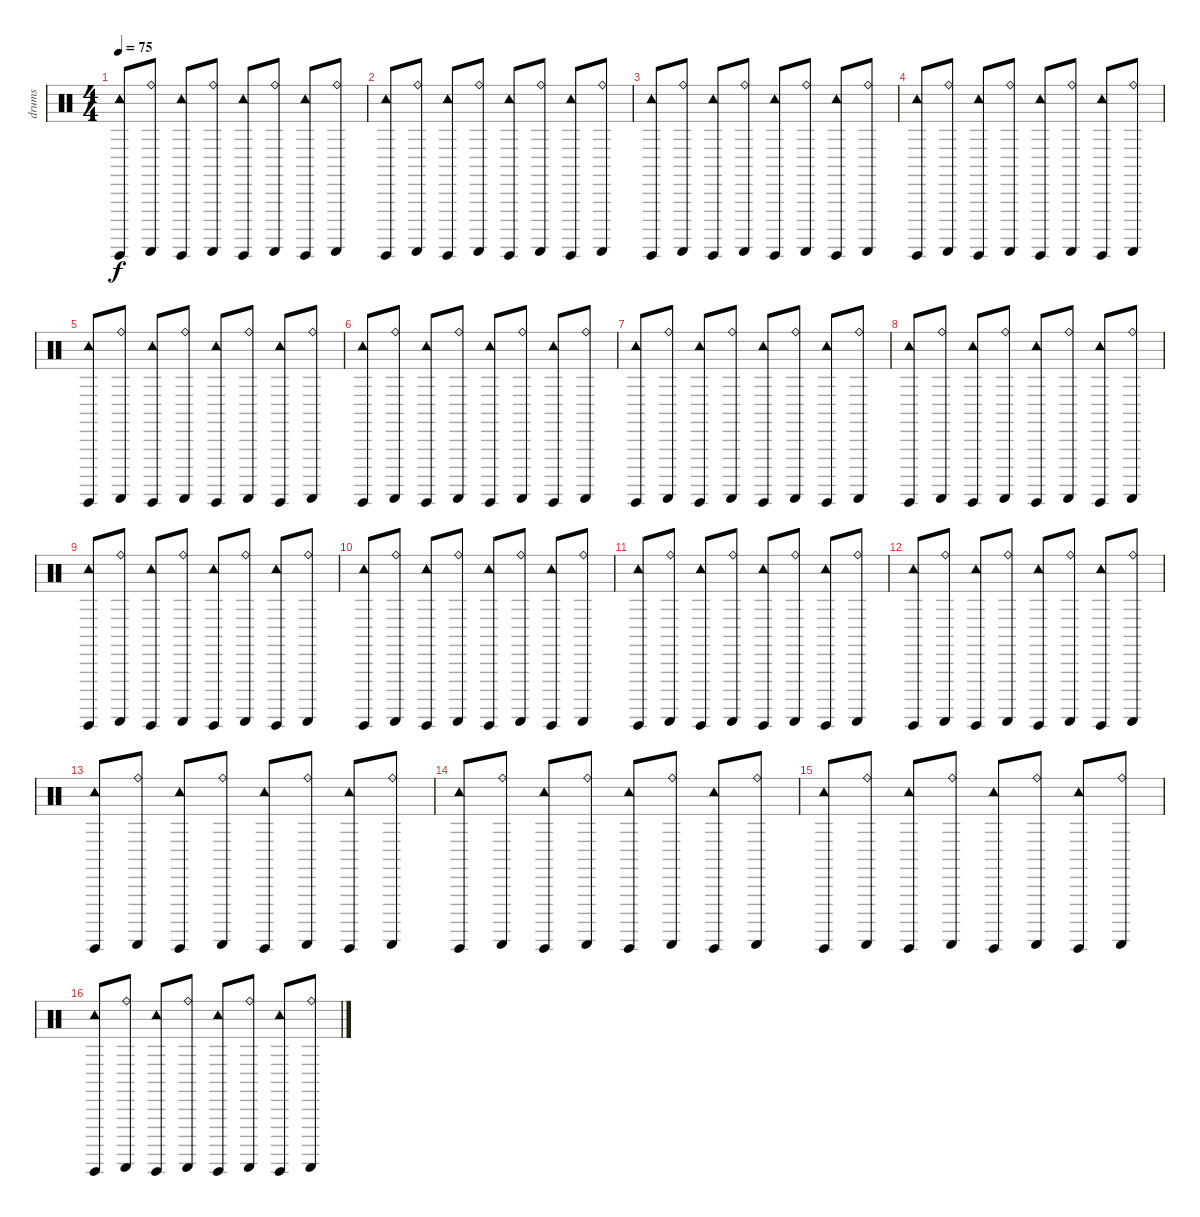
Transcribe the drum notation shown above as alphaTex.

\track ("drums" "drums") {instrument percussion}
\staff {score}
\articulation defaults
\ts (4 4)
\tempo 75
\clef neutral
\ks c
("Tambourine (hit)" "Guiro (hit)").8{dy f volume 13} ("Ride (bell)" "Guiro (scrap-return)").8 ("Tambourine (hit)" "Guiro (hit)").8 ("Ride (bell)" "Guiro (scrap-return)").8 ("Tambourine (hit)" "Guiro (hit)").8 ("Ride (bell)" "Guiro (scrap-return)").8 ("Tambourine (hit)" "Guiro (hit)").8 ("Ride (bell)" "Guiro (scrap-return)").8 |
("Tambourine (hit)" "Guiro (hit)").8{volume 13} ("Ride (bell)" "Guiro (scrap-return)").8 ("Tambourine (hit)" "Guiro (hit)").8 ("Ride (bell)" "Guiro (scrap-return)").8 ("Tambourine (hit)" "Guiro (hit)").8 ("Ride (bell)" "Guiro (scrap-return)").8 ("Tambourine (hit)" "Guiro (hit)").8 ("Ride (bell)" "Guiro (scrap-return)").8 |
("Tambourine (hit)" "Guiro (hit)").8{volume 13} ("Ride (bell)" "Guiro (scrap-return)").8 ("Tambourine (hit)" "Guiro (hit)").8 ("Ride (bell)" "Guiro (scrap-return)").8 ("Tambourine (hit)" "Guiro (hit)").8 ("Ride (bell)" "Guiro (scrap-return)").8 ("Tambourine (hit)" "Guiro (hit)").8 ("Ride (bell)" "Guiro (scrap-return)").8 |
("Tambourine (hit)" "Guiro (hit)").8{volume 13} ("Ride (bell)" "Guiro (scrap-return)").8 ("Tambourine (hit)" "Guiro (hit)").8 ("Ride (bell)" "Guiro (scrap-return)").8 ("Tambourine (hit)" "Guiro (hit)").8 ("Ride (bell)" "Guiro (scrap-return)").8 ("Tambourine (hit)" "Guiro (hit)").8 ("Ride (bell)" "Guiro (scrap-return)").8 |
("Tambourine (hit)" "Guiro (hit)").8{volume 13} ("Ride (bell)" "Guiro (scrap-return)").8 ("Tambourine (hit)" "Guiro (hit)").8 ("Ride (bell)" "Guiro (scrap-return)").8 ("Tambourine (hit)" "Guiro (hit)").8 ("Ride (bell)" "Guiro (scrap-return)").8 ("Tambourine (hit)" "Guiro (hit)").8 ("Ride (bell)" "Guiro (scrap-return)").8 |
("Tambourine (hit)" "Guiro (hit)").8{volume 13} ("Ride (bell)" "Guiro (scrap-return)").8 ("Tambourine (hit)" "Guiro (hit)").8 ("Ride (bell)" "Guiro (scrap-return)").8 ("Tambourine (hit)" "Guiro (hit)").8 ("Ride (bell)" "Guiro (scrap-return)").8 ("Tambourine (hit)" "Guiro (hit)").8 ("Ride (bell)" "Guiro (scrap-return)").8 |
("Tambourine (hit)" "Guiro (hit)").8{volume 13} ("Ride (bell)" "Guiro (scrap-return)").8 ("Tambourine (hit)" "Guiro (hit)").8 ("Ride (bell)" "Guiro (scrap-return)").8 ("Tambourine (hit)" "Guiro (hit)").8 ("Ride (bell)" "Guiro (scrap-return)").8 ("Tambourine (hit)" "Guiro (hit)").8 ("Ride (bell)" "Guiro (scrap-return)").8 |
("Tambourine (hit)" "Guiro (hit)").8{volume 13} ("Ride (bell)" "Guiro (scrap-return)").8 ("Tambourine (hit)" "Guiro (hit)").8 ("Ride (bell)" "Guiro (scrap-return)").8 ("Tambourine (hit)" "Guiro (hit)").8 ("Ride (bell)" "Guiro (scrap-return)").8 ("Tambourine (hit)" "Guiro (hit)").8 ("Ride (bell)" "Guiro (scrap-return)").8 |
("Tambourine (hit)" "Guiro (hit)").8{volume 13} ("Ride (bell)" "Guiro (scrap-return)").8 ("Tambourine (hit)" "Guiro (hit)").8 ("Ride (bell)" "Guiro (scrap-return)").8 ("Tambourine (hit)" "Guiro (hit)").8 ("Ride (bell)" "Guiro (scrap-return)").8 ("Tambourine (hit)" "Guiro (hit)").8 ("Ride (bell)" "Guiro (scrap-return)").8 |
("Tambourine (hit)" "Guiro (hit)").8{volume 13} ("Ride (bell)" "Guiro (scrap-return)").8 ("Tambourine (hit)" "Guiro (hit)").8 ("Ride (bell)" "Guiro (scrap-return)").8 ("Tambourine (hit)" "Guiro (hit)").8 ("Ride (bell)" "Guiro (scrap-return)").8 ("Tambourine (hit)" "Guiro (hit)").8 ("Ride (bell)" "Guiro (scrap-return)").8 |
("Tambourine (hit)" "Guiro (hit)").8{volume 13} ("Ride (bell)" "Guiro (scrap-return)").8 ("Tambourine (hit)" "Guiro (hit)").8 ("Ride (bell)" "Guiro (scrap-return)").8 ("Tambourine (hit)" "Guiro (hit)").8 ("Ride (bell)" "Guiro (scrap-return)").8 ("Tambourine (hit)" "Guiro (hit)").8 ("Ride (bell)" "Guiro (scrap-return)").8 |
("Tambourine (hit)" "Guiro (hit)").8{volume 13} ("Ride (bell)" "Guiro (scrap-return)").8 ("Tambourine (hit)" "Guiro (hit)").8 ("Ride (bell)" "Guiro (scrap-return)").8 ("Tambourine (hit)" "Guiro (hit)").8 ("Ride (bell)" "Guiro (scrap-return)").8 ("Tambourine (hit)" "Guiro (hit)").8 ("Ride (bell)" "Guiro (scrap-return)").8 |
("Tambourine (hit)" "Guiro (hit)").8{volume 13} ("Ride (bell)" "Guiro (scrap-return)").8 ("Tambourine (hit)" "Guiro (hit)").8 ("Ride (bell)" "Guiro (scrap-return)").8 ("Tambourine (hit)" "Guiro (hit)").8 ("Ride (bell)" "Guiro (scrap-return)").8 ("Tambourine (hit)" "Guiro (hit)").8 ("Ride (bell)" "Guiro (scrap-return)").8 |
("Tambourine (hit)" "Guiro (hit)").8{volume 13} ("Ride (bell)" "Guiro (scrap-return)").8 ("Tambourine (hit)" "Guiro (hit)").8 ("Ride (bell)" "Guiro (scrap-return)").8 ("Tambourine (hit)" "Guiro (hit)").8 ("Ride (bell)" "Guiro (scrap-return)").8 ("Tambourine (hit)" "Guiro (hit)").8 ("Ride (bell)" "Guiro (scrap-return)").8 |
("Tambourine (hit)" "Guiro (hit)").8{volume 13} ("Ride (bell)" "Guiro (scrap-return)").8 ("Tambourine (hit)" "Guiro (hit)").8 ("Ride (bell)" "Guiro (scrap-return)").8 ("Tambourine (hit)" "Guiro (hit)").8 ("Ride (bell)" "Guiro (scrap-return)").8 ("Tambourine (hit)" "Guiro (hit)").8 ("Ride (bell)" "Guiro (scrap-return)").8 |
("Tambourine (hit)" "Guiro (hit)").8{volume 13} ("Ride (bell)" "Guiro (scrap-return)").8 ("Tambourine (hit)" "Guiro (hit)").8 ("Ride (bell)" "Guiro (scrap-return)").8 ("Tambourine (hit)" "Guiro (hit)").8 ("Ride (bell)" "Guiro (scrap-return)").8 ("Tambourine (hit)" "Guiro (hit)").8 ("Ride (bell)" "Guiro (scrap-return)").8
